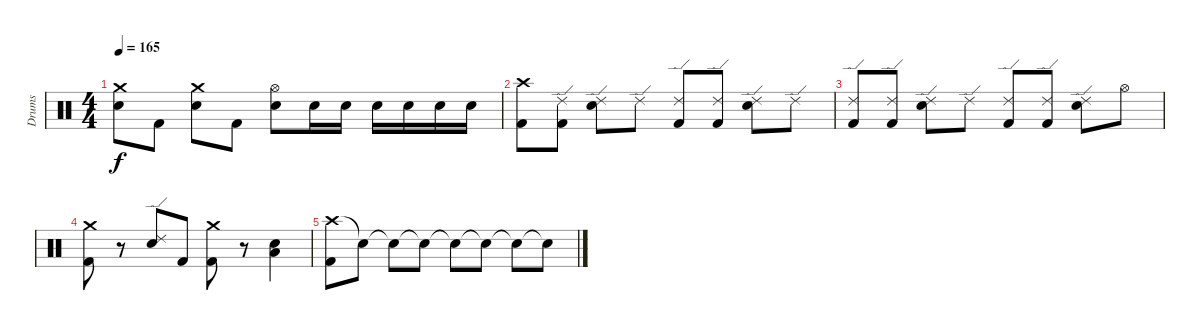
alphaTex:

\track ("Drums" "Drums") {instrument percussion}
\staff {score}
\articulation defaults
\ts (4 4)
\tempo 165
\clef neutral
\ks c
("Crash medium (hit)" "Electric Snare (hit)").8{dy f} "Kick (hit) 2".8 ("Crash medium (hit)" "Electric Snare (hit)").8 "Kick (hit) 2".8 ("Hi-Hat (open)" "Electric Snare (hit)").8 "Electric Snare (hit)".16 "Electric Snare (hit)".16 "Electric Snare (hit)".16 "Electric Snare (hit)".16 "Electric Snare (hit)".16 "Electric Snare (hit)".16 |
("Crash high (hit)" "Kick (hit) 2").8 ("Ride (edge) 2" "Kick (hit) 2").8 ("Ride (edge) 2" "Electric Snare (hit)").8 "Ride (edge) 2".8 ("Ride (edge) 2" "Kick (hit) 2").8 ("Ride (edge) 2" "Kick (hit) 2").8 ("Ride (edge) 2" "Electric Snare (hit)").8 "Ride (edge) 2".8 |
("Ride (edge) 2" "Kick (hit) 2").8 ("Ride (edge) 2" "Kick (hit) 2").8 ("Ride (edge) 2" "Electric Snare (hit)").8 "Ride (edge) 2".8 ("Ride (edge) 2" "Kick (hit) 2").8 ("Ride (edge) 2" "Kick (hit) 2").8 ("Ride (edge) 2" "Electric Snare (hit)").8 "Hi-Hat (open)".8 |
("Crash medium (hit)" "Kick (hit) 2").8 r.8 ("Ride (edge) 2" "Electric Snare (hit)").8 "Kick (hit) 2".8 ("Crash medium (hit)" "Kick (hit) 2").8 r.8 ("Low Floor Tom (hit)" "Electric Snare (hit)").4 |
("Crash high (hit)" "Kick (hit) 2").8 "Snare (hit)"{t}.8 "Snare (hit)"{t}.8 "Snare (hit)"{t}.8 "Snare (hit)"{t}.8 "Snare (hit)"{t}.8 "Snare (hit)"{t}.8 "Snare (hit)"{t}.8
